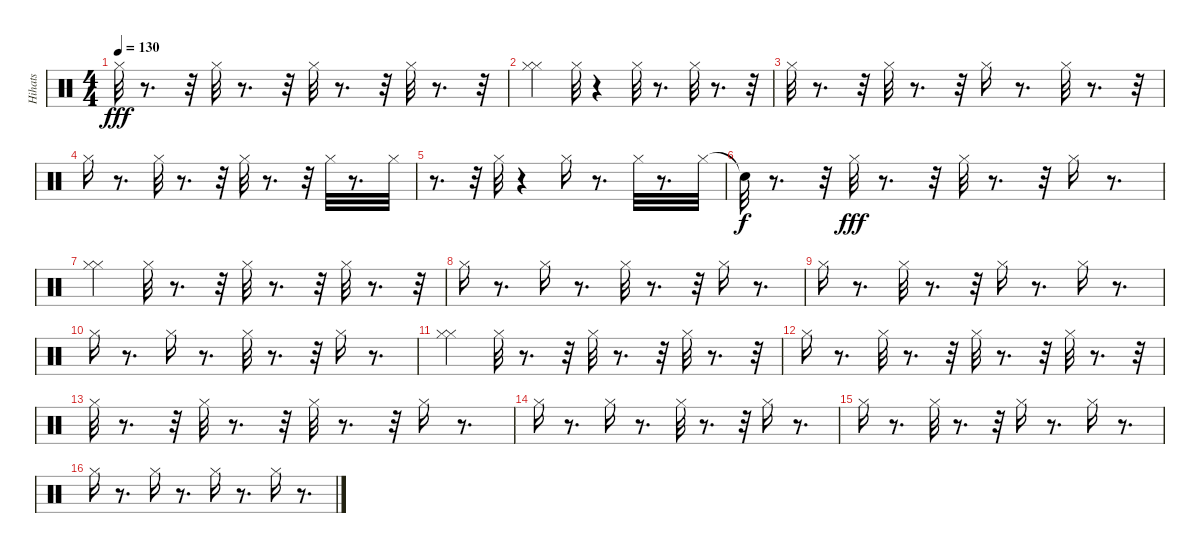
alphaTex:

\track ("Hihats" "Hihats") {instrument percussion}
\staff {score}
\articulation defaults
\ts (4 4)
\tempo 130
\clef neutral
\ks c "Hi-Hat (closed)".32{dy fff}
r.8{d} r.32 "Hi-Hat (closed)".32 r.8{d} r.32 "Hi-Hat (closed)".32 r.8{d} r.32 "Hi-Hat (closed)".32 r.8{d} r.32 |
("Hi-Hat (closed)" "Hi-Hat (closed)").4 "Hi-Hat (closed)".32 r.4 "Hi-Hat (closed)".32 r.8{d} "Hi-Hat (closed)".32 r.8{d} r.32 |
"Hi-Hat (closed)".32 r.8{d} r.32 "Hi-Hat (closed)".32 r.8{d} r.32 "Hi-Hat (closed)".16 r.8{d} "Hi-Hat (closed)".32 r.8{d} r.32 |
"Hi-Hat (closed)".16 r.8{d} "Hi-Hat (closed)".32 r.8{d} r.32 "Hi-Hat (closed)".32 r.8{d} r.32 "Hi-Hat (closed)".32 r.8{d} "Hi-Hat (closed)".32 |
r.8{d} r.32 "Hi-Hat (closed)".32 r.4 "Hi-Hat (closed)".16 r.8{d} "Hi-Hat (closed)".32 r.8{d} "Hi-Hat (closed)".32 |
"Snare (hit)"{t}.32{dy f} r.8{d} r.32 "Hi-Hat (closed)".32{dy fff} r.8{d} r.32 "Hi-Hat (closed)".32 r.8{d} r.32 "Hi-Hat (closed)".16 r.8{d} |
("Hi-Hat (closed)" "Hi-Hat (closed)").4 "Hi-Hat (closed)".32 r.8{d} r.32 "Hi-Hat (closed)".32 r.8{d} r.32 "Hi-Hat (closed)".32 r.8{d} r.32 |
"Hi-Hat (closed)".16 r.8{d} "Hi-Hat (closed)".16 r.8{d} "Hi-Hat (closed)".32 r.8{d} r.32 "Hi-Hat (closed)".16 r.8{d} |
"Hi-Hat (closed)".16 r.8{d} "Hi-Hat (closed)".32 r.8{d} r.32 "Hi-Hat (closed)".16 r.8{d} "Hi-Hat (closed)".16 r.8{d} |
"Hi-Hat (closed)".16 r.8{d} "Hi-Hat (closed)".16 r.8{d} "Hi-Hat (closed)".32 r.8{d} r.32 "Hi-Hat (closed)".16 r.8{d} |
("Hi-Hat (closed)" "Hi-Hat (closed)").4 "Hi-Hat (closed)".32 r.8{d} r.32 "Hi-Hat (closed)".32 r.8{d} r.32 "Hi-Hat (closed)".32 r.8{d} r.32 |
"Hi-Hat (closed)".16 r.8{d} "Hi-Hat (closed)".32 r.8{d} r.32 "Hi-Hat (closed)".32 r.8{d} r.32 "Hi-Hat (closed)".32 r.8{d} r.32 |
"Hi-Hat (closed)".32 r.8{d} r.32 "Hi-Hat (closed)".32 r.8{d} r.32 "Hi-Hat (closed)".32 r.8{d} r.32 "Hi-Hat (closed)".16 r.8{d} |
"Hi-Hat (closed)".16 r.8{d} "Hi-Hat (closed)".16 r.8{d} "Hi-Hat (closed)".32 r.8{d} r.32 "Hi-Hat (closed)".16 r.8{d} |
"Hi-Hat (closed)".16 r.8{d} "Hi-Hat (closed)".32 r.8{d} r.32 "Hi-Hat (closed)".16 r.8{d} "Hi-Hat (closed)".16 r.8{d} |
"Hi-Hat (closed)".16 r.8{d} "Hi-Hat (closed)".16 r.8{d} "Hi-Hat (closed)".16 r.8{d} "Hi-Hat (closed)".16 r.8{d}
